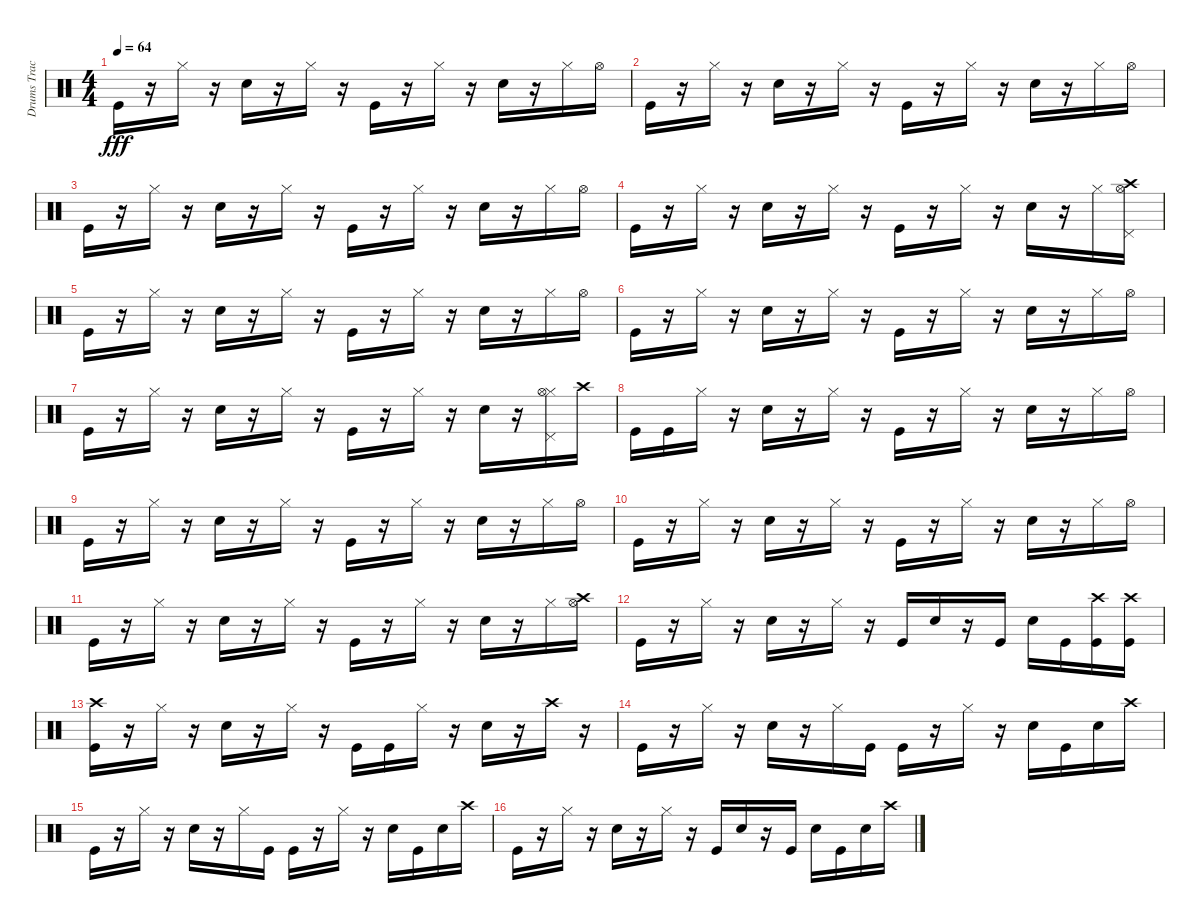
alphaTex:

\track ("Drums Track" "Drums Trac") {instrument percussion}
\staff {score}
\articulation defaults
\ts (4 4)
\tempo 64
\clef neutral
\ks c "Kick (hit)".16{dy fff}
r.16 "Hi-Hat (closed)".16 r.16 "Snare (hit) 2".16 r.16 "Hi-Hat (closed)".16 r.16 "Kick (hit)".16 r.16 "Hi-Hat (closed)".16 r.16 "Snare (hit) 2".16 r.16 "Hi-Hat (closed)".16 "Hi-Hat (open)".16 |
"Kick (hit)".16 r.16 "Hi-Hat (closed)".16 r.16 "Snare (hit) 2".16 r.16 "Hi-Hat (closed)".16 r.16 "Kick (hit)".16 r.16 "Hi-Hat (closed)".16 r.16 "Snare (hit) 2".16 r.16 "Hi-Hat (closed)".16 "Hi-Hat (open)".16 |
"Kick (hit)".16 r.16 "Hi-Hat (closed)".16 r.16 "Snare (hit) 2".16 r.16 "Hi-Hat (closed)".16 r.16 "Kick (hit)".16 r.16 "Hi-Hat (closed)".16 r.16 "Snare (hit) 2".16 r.16 "Hi-Hat (closed)".16 "Hi-Hat (open)".16 |
"Kick (hit)".16 r.16 "Hi-Hat (closed)".16 r.16 "Snare (hit) 2".16 r.16 "Hi-Hat (closed)".16 r.16 "Kick (hit)".16 r.16 "Hi-Hat (closed)".16 r.16 "Snare (hit) 2".16 r.16 "Hi-Hat (closed)".16 ("Hi-Hat (open)" "Pedal Hi-Hat (hit)" "Crash high (hit)").16 |
"Kick (hit)".16 r.16 "Hi-Hat (closed)".16 r.16 "Snare (hit) 2".16 r.16 "Hi-Hat (closed)".16 r.16 "Kick (hit)".16 r.16 "Hi-Hat (closed)".16 r.16 "Snare (hit) 2".16 r.16 "Hi-Hat (closed)".16 "Hi-Hat (open)".16 |
"Kick (hit)".16 r.16 "Hi-Hat (closed)".16 r.16 "Snare (hit) 2".16 r.16 "Hi-Hat (closed)".16 r.16 "Kick (hit)".16 r.16 "Hi-Hat (closed)".16 r.16 "Snare (hit) 2".16 r.16 "Hi-Hat (closed)".16 "Hi-Hat (open)".16 |
"Kick (hit)".16 r.16 "Hi-Hat (closed)".16 r.16 "Snare (hit) 2".16 r.16 "Hi-Hat (closed)".16 r.16 "Kick (hit)".16 r.16 "Hi-Hat (closed)".16 r.16 "Snare (hit) 2".16 r.16 ("Hi-Hat (closed)" "Hi-Hat (open)" "Pedal Hi-Hat (hit)").16 "Crash high (hit)".16 |
"Kick (hit)".16 "Kick (hit)".16 "Hi-Hat (closed)".16 r.16 "Snare (hit) 2".16 r.16 "Hi-Hat (closed)".16 r.16 "Kick (hit)".16 r.16 "Hi-Hat (closed)".16 r.16 "Snare (hit) 2".16 r.16 "Hi-Hat (closed)".16 "Hi-Hat (open)".16 |
"Kick (hit)".16 r.16 "Hi-Hat (closed)".16 r.16 "Snare (hit) 2".16 r.16 "Hi-Hat (closed)".16 r.16 "Kick (hit)".16 r.16 "Hi-Hat (closed)".16 r.16 "Snare (hit) 2".16 r.16 "Hi-Hat (closed)".16 "Hi-Hat (open)".16 |
"Kick (hit)".16 r.16 "Hi-Hat (closed)".16 r.16 "Snare (hit) 2".16 r.16 "Hi-Hat (closed)".16 r.16 "Kick (hit)".16 r.16 "Hi-Hat (closed)".16 r.16 "Snare (hit) 2".16 r.16 "Hi-Hat (closed)".16 "Hi-Hat (open)".16 |
"Kick (hit)".16 r.16 "Hi-Hat (closed)".16 r.16 "Snare (hit) 2".16 r.16 "Hi-Hat (closed)".16 r.16 "Kick (hit)".16 r.16 "Hi-Hat (closed)".16 r.16 "Snare (hit) 2".16 r.16 "Hi-Hat (closed)".16 ("Crash high (hit)" "Hi-Hat (open)").16 |
"Kick (hit)".16 r.16 "Hi-Hat (closed)".16 r.16 "Snare (hit) 2".16 r.16 "Hi-Hat (closed)".16 r.16 "Kick (hit)".16 "Snare (hit) 2".16 r.16 "Kick (hit)".16 "Snare (hit) 2".16 "Kick (hit)".16 ("Crash high (hit)" "Kick (hit)").16 ("Crash high (hit)" "Kick (hit)").16 |
("Kick (hit)" "Crash high (hit)").16 r.16 "Hi-Hat (closed)".16 r.16 "Snare (hit) 2".16 r.16 "Hi-Hat (closed)".16 r.16 "Kick (hit)".16 "Kick (hit)".16 "Hi-Hat (closed)".16 r.16 "Snare (hit) 2".16 r.16 "Crash high (hit)".16 r.16 |
"Kick (hit)".16 r.16 "Hi-Hat (closed)".16 r.16 "Snare (hit) 2".16 r.16 "Hi-Hat (closed)".16 "Kick (hit)".16 "Kick (hit)".16 r.16 "Hi-Hat (closed)".16 r.16 "Snare (hit) 2".16 "Kick (hit)".16 "Snare (hit) 2".16 "Crash high (hit)".16 |
"Kick (hit)".16 r.16 "Hi-Hat (closed)".16 r.16 "Snare (hit) 2".16 r.16 "Hi-Hat (closed)".16 "Kick (hit)".16 "Kick (hit)".16 r.16 "Hi-Hat (closed)".16 r.16 "Snare (hit) 2".16 "Kick (hit)".16 "Snare (hit) 2".16 "Crash high (hit)".16 |
"Kick (hit)".16 r.16 "Hi-Hat (closed)".16 r.16 "Snare (hit) 2".16 r.16 "Hi-Hat (closed)".16 r.16 "Kick (hit)".16 "Snare (hit) 2".16 r.16 "Kick (hit)".16 "Snare (hit) 2".16 "Kick (hit)".16 "Snare (hit) 2".16 "Crash high (hit)".16
